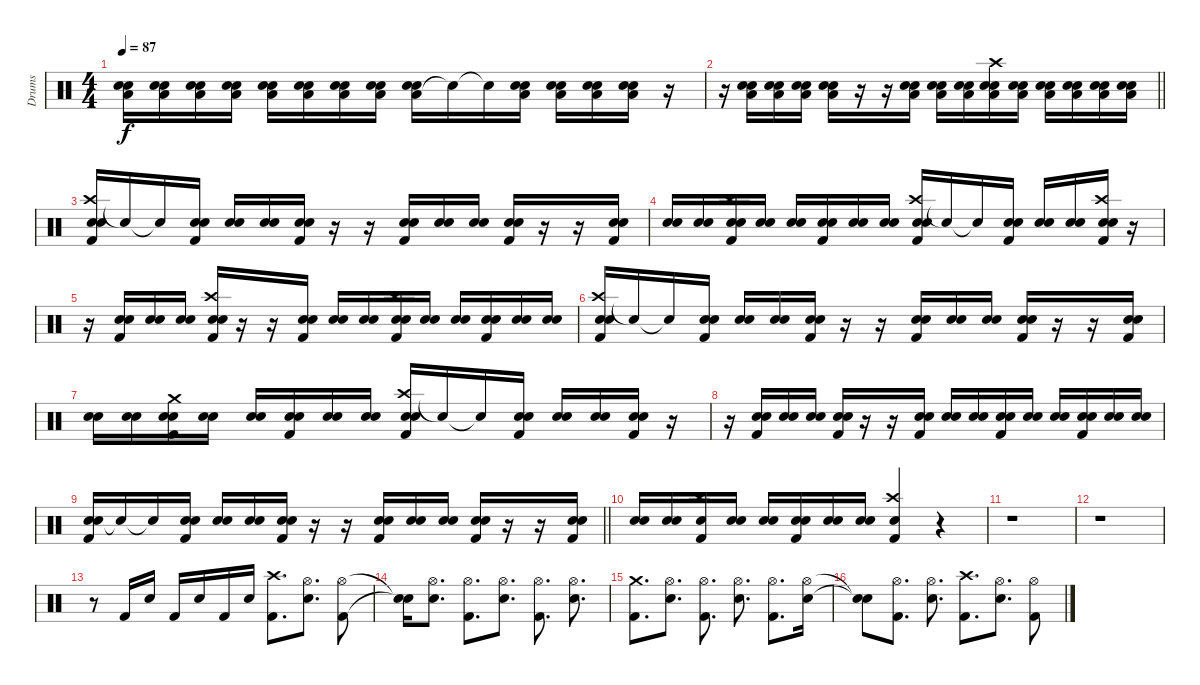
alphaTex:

\track ("Drums" "Drums") {instrument percussion}
\staff
\articulation defaults
\ts (4 4)
\tempo 87
\clef neutral
\ks c
("Low Floor Tom (hit)" "Snare (hit) 2" "Electric Snare (hit)").16{dy f} ("Low Floor Tom (hit)" "Snare (hit) 2" "Electric Snare (hit)").16 ("Low Floor Tom (hit)" "Snare (hit) 2" "Electric Snare (hit)").16 ("Low Floor Tom (hit)" "Snare (hit) 2" "Electric Snare (hit)").16 ("Low Floor Tom (hit)" "Snare (hit) 2" "Electric Snare (hit)").16 ("Low Floor Tom (hit)" "Snare (hit) 2" "Electric Snare (hit)").16 ("Low Floor Tom (hit)" "Snare (hit) 2" "Electric Snare (hit)").16 ("Low Floor Tom (hit)" "Snare (hit) 2" "Electric Snare (hit)").16 ("Low Floor Tom (hit)" "Snare (hit) 2" "Electric Snare (hit)").16 "Snare (hit)"{t}.16 "Snare (hit)"{t}.16 ("Low Floor Tom (hit)" "Snare (hit) 2" "Electric Snare (hit)").16 ("Low Floor Tom (hit)" "Snare (hit) 2" "Electric Snare (hit)").16 ("Low Floor Tom (hit)" "Snare (hit) 2" "Electric Snare (hit)").16 ("Low Floor Tom (hit)" "Snare (hit) 2" "Electric Snare (hit)").16 r.16 |
\barLineRight lightlight
r.16 ("Low Floor Tom (hit)" "Snare (hit) 2" "Electric Snare (hit)").16 ("Low Floor Tom (hit)" "Snare (hit) 2" "Electric Snare (hit)").16 ("Low Floor Tom (hit)" "Snare (hit) 2" "Electric Snare (hit)").16 ("Low Floor Tom (hit)" "Snare (hit) 2" "Electric Snare (hit)").16 r.16 r.16 ("Low Floor Tom (hit)" "Snare (hit) 2" "Electric Snare (hit)").16 ("Low Floor Tom (hit)" "Snare (hit) 2" "Electric Snare (hit)").16 ("Low Floor Tom (hit)" "Snare (hit) 2" "Electric Snare (hit)").16 ("Crash high (hit)" "Low Floor Tom (hit)" "Snare (hit) 2" "Electric Snare (hit)").16 ("Low Floor Tom (hit)" "Snare (hit) 2" "Electric Snare (hit)").16 ("Low Floor Tom (hit)" "Snare (hit) 2" "Electric Snare (hit)").16 ("Low Floor Tom (hit)" "Snare (hit) 2" "Electric Snare (hit)").16 ("Low Floor Tom (hit)" "Snare (hit) 2" "Electric Snare (hit)").16 ("Low Floor Tom (hit)" "Snare (hit) 2" "Electric Snare (hit)").16 |
\section ("" "")
("Crash high (hit)" "Snare (hit) 2" "Electric Snare (hit)" "Kick (hit) 2").16 "Snare (hit)"{t}.16 "Snare (hit)"{t}.16 ("Snare (hit) 2" "Electric Snare (hit)" "Kick (hit) 2").16 ("Snare (hit) 2" "Electric Snare (hit)").16 ("Snare (hit) 2" "Electric Snare (hit)").16 ("Snare (hit) 2" "Electric Snare (hit)" "Kick (hit) 2").16 r.16 r.16 ("Snare (hit) 2" "Electric Snare (hit)" "Kick (hit) 2").16 ("Snare (hit) 2" "Electric Snare (hit)").16 ("Snare (hit) 2" "Electric Snare (hit)").16 ("Snare (hit) 2" "Electric Snare (hit)" "Kick (hit) 2").16 r.16 r.16 ("Snare (hit) 2" "Electric Snare (hit)" "Kick (hit) 2").16 |
("Snare (hit) 2" "Electric Snare (hit)").16 ("Snare (hit) 2" "Electric Snare (hit)").16 ("Crash high (hit)" "Snare (hit) 2" "Electric Snare (hit)" "Kick (hit) 2").16 ("Snare (hit) 2" "Electric Snare (hit)").16 ("Snare (hit) 2" "Electric Snare (hit)").16 ("Snare (hit) 2" "Electric Snare (hit)" "Kick (hit) 2").16 ("Snare (hit) 2" "Electric Snare (hit)").16 ("Snare (hit) 2" "Electric Snare (hit)").16 ("Crash high (hit)" "Snare (hit) 2" "Electric Snare (hit)" "Kick (hit) 2").16 "Snare (hit)"{t}.16 "Snare (hit)"{t}.16 ("Snare (hit) 2" "Electric Snare (hit)" "Kick (hit) 2").16 ("Snare (hit) 2" "Electric Snare (hit)").16 ("Snare (hit) 2" "Electric Snare (hit)").16 ("Crash high (hit)" "Snare (hit) 2" "Electric Snare (hit)" "Kick (hit) 2").16 r.16 |
r.16 ("Snare (hit) 2" "Electric Snare (hit)" "Kick (hit) 2").16 ("Snare (hit) 2" "Electric Snare (hit)").16 ("Snare (hit) 2" "Electric Snare (hit)").16 ("Crash high (hit)" "Snare (hit) 2" "Electric Snare (hit)" "Kick (hit) 2").16 r.16 r.16 ("Snare (hit) 2" "Electric Snare (hit)" "Kick (hit) 2").16 ("Snare (hit) 2" "Electric Snare (hit)").16 ("Snare (hit) 2" "Electric Snare (hit)").16 ("Crash high (hit)" "Snare (hit) 2" "Electric Snare (hit)" "Kick (hit) 2").16 ("Snare (hit) 2" "Electric Snare (hit)").16 ("Snare (hit) 2" "Electric Snare (hit)").16 ("Snare (hit) 2" "Electric Snare (hit)" "Kick (hit) 2").16 ("Snare (hit) 2" "Electric Snare (hit)").16 ("Snare (hit) 2" "Electric Snare (hit)").16 |
("Crash high (hit)" "Snare (hit) 2" "Electric Snare (hit)" "Kick (hit) 2").16 "Snare (hit)"{t}.16 "Snare (hit)"{t}.16 ("Snare (hit) 2" "Electric Snare (hit)" "Kick (hit) 2").16 ("Snare (hit) 2" "Electric Snare (hit)").16 ("Snare (hit) 2" "Electric Snare (hit)").16 ("Snare (hit) 2" "Electric Snare (hit)" "Kick (hit) 2").16 r.16 r.16 ("Snare (hit) 2" "Electric Snare (hit)" "Kick (hit) 2").16 ("Snare (hit) 2" "Electric Snare (hit)").16 ("Snare (hit) 2" "Electric Snare (hit)").16 ("Snare (hit) 2" "Electric Snare (hit)" "Kick (hit) 2").16 r.16 r.16 ("Snare (hit) 2" "Electric Snare (hit)" "Kick (hit) 2").16 |
("Snare (hit) 2" "Electric Snare (hit)").16 ("Snare (hit) 2" "Electric Snare (hit)").16 ("Crash medium (hit)" "Snare (hit) 2" "Electric Snare (hit)" "Kick (hit) 2").16 ("Snare (hit) 2" "Electric Snare (hit)").16 ("Snare (hit) 2" "Electric Snare (hit)").16 ("Snare (hit) 2" "Electric Snare (hit)" "Kick (hit) 2").16 ("Snare (hit) 2" "Electric Snare (hit)").16 ("Snare (hit) 2" "Electric Snare (hit)").16 ("Crash high (hit)" "Snare (hit) 2" "Electric Snare (hit)" "Kick (hit) 2").16 "Snare (hit)"{t}.16 "Snare (hit)"{t}.16 ("Snare (hit) 2" "Electric Snare (hit)" "Kick (hit) 2").16 ("Snare (hit) 2" "Electric Snare (hit)").16 ("Snare (hit) 2" "Electric Snare (hit)").16 ("Snare (hit) 2" "Electric Snare (hit)" "Kick (hit) 2").16 r.16 |
r.16 ("Snare (hit) 2" "Electric Snare (hit)" "Kick (hit) 2").16 ("Snare (hit) 2" "Electric Snare (hit)").16 ("Snare (hit) 2" "Electric Snare (hit)").16 ("Snare (hit) 2" "Electric Snare (hit)" "Kick (hit) 2").16 r.16 r.16 ("Snare (hit) 2" "Electric Snare (hit)" "Kick (hit) 2").16 ("Snare (hit) 2" "Electric Snare (hit)").16 ("Snare (hit) 2" "Electric Snare (hit)").16 ("Snare (hit) 2" "Electric Snare (hit)" "Kick (hit) 2").16 ("Snare (hit) 2" "Electric Snare (hit)").16 ("Snare (hit) 2" "Electric Snare (hit)").16 ("Snare (hit) 2" "Electric Snare (hit)" "Kick (hit) 2").16 ("Snare (hit) 2" "Electric Snare (hit)").16 ("Snare (hit) 2" "Electric Snare (hit)").16 |
\barLineRight lightlight
("Snare (hit) 2" "Electric Snare (hit)" "Kick (hit) 2").16 "Snare (hit)"{t}.16 "Snare (hit)"{t}.16 ("Snare (hit) 2" "Electric Snare (hit)" "Kick (hit) 2").16 ("Snare (hit) 2" "Electric Snare (hit)").16 ("Snare (hit) 2" "Electric Snare (hit)").16 ("Snare (hit) 2" "Electric Snare (hit)" "Kick (hit) 2").16 r.16 r.16 ("Snare (hit) 2" "Electric Snare (hit)" "Kick (hit) 2").16 ("Snare (hit) 2" "Electric Snare (hit)").16 ("Snare (hit) 2" "Electric Snare (hit)").16 ("Snare (hit) 2" "Electric Snare (hit)" "Kick (hit) 2").16 r.16 r.16 ("Snare (hit) 2" "Electric Snare (hit)" "Kick (hit) 2").16 |
\section ("" "")
("Snare (hit) 2" "Electric Snare (hit)").16 ("Snare (hit) 2" "Electric Snare (hit)").16 ("Crash high (hit)" "Snare (hit) 2" "Kick (hit) 2").16 ("Snare (hit) 2" "Electric Snare (hit)").16 ("Snare (hit) 2" "Electric Snare (hit)").16 ("Snare (hit) 2" "Electric Snare (hit)" "Kick (hit) 2").16 ("Snare (hit) 2" "Electric Snare (hit)").16 ("Snare (hit) 2" "Electric Snare (hit)").16 ("Crash high (hit)" "Snare (hit) 2" "Kick (hit) 2").4{volume 14} r.4 |
r.1 |
r.1 |
r.8 "Kick (hit) 2".16 "Electric Snare (hit)".16 "Kick (hit) 2".16 "Electric Snare (hit)".16 "Kick (hit) 2".16 "Electric Snare (hit)".16 ("Crash high (hit)" "Kick (hit) 2").8{d} ("Hi-Hat (open)" "Electric Snare (hit)").8{d} ("Hi-Hat (open)" "Kick (hit) 2").8 |
("Snare (hit)"{t} "Snare (hit)"{t}).16 ("Hi-Hat (open)" "Electric Snare (hit)").8{d} ("Hi-Hat (open)" "Kick (hit) 2").8{d} ("Hi-Hat (open)" "Electric Snare (hit)").8{d} ("Hi-Hat (open)" "Kick (hit) 2").8{d} ("Hi-Hat (open)" "Electric Snare (hit)").8{d} |
("Crash medium (hit)" "Kick (hit) 2").8{d} ("Hi-Hat (open)" "Electric Snare (hit)").8{d} ("Hi-Hat (open)" "Kick (hit) 2").8{d} ("Hi-Hat (open)" "Electric Snare (hit)").8{d} ("Hi-Hat (open)" "Kick (hit) 2").8{d} ("Hi-Hat (open)" "Electric Snare (hit)").16 |
("Snare (hit)"{t} "Snare (hit)"{t}).8 ("Hi-Hat (open)" "Kick (hit) 2").8{d} ("Hi-Hat (open)" "Electric Snare (hit)").8{d} ("Crash high (hit)" "Kick (hit) 2").8{d} ("Hi-Hat (open)" "Electric Snare (hit)").8{d} ("Hi-Hat (open)" "Kick (hit) 2").8
